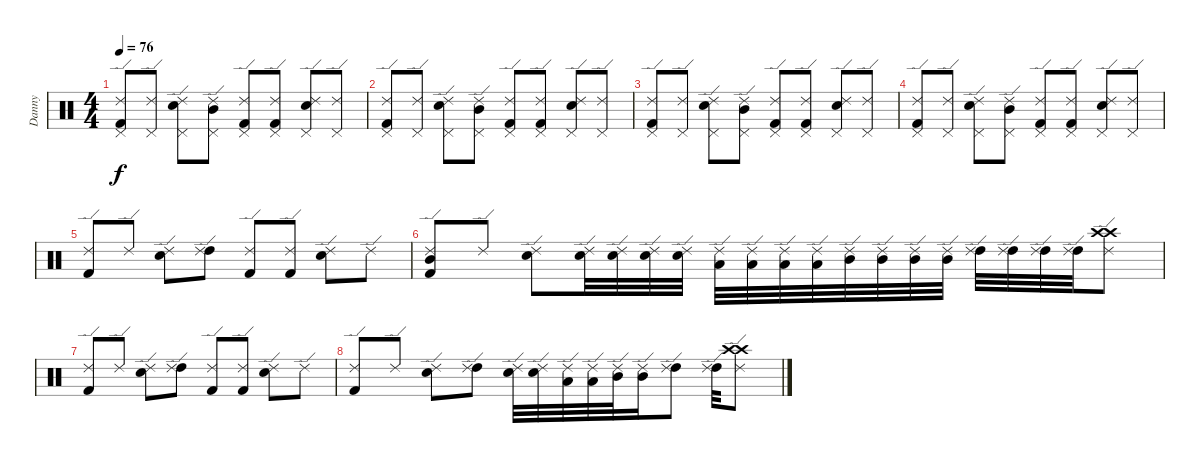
\track ("Danny" "Danny") {instrument percussion}
\staff {score}
\articulation defaults
\ts (4 4)
\tempo 76
\clef neutral
\ks c
("Kick (hit) 2" "Ride (edge) 2" "Pedal Hi-Hat (hit)").8{dy f} ("Ride (edge) 2" "Pedal Hi-Hat (hit)").8 ("Electric Snare (hit)" "Ride (edge) 2" "Pedal Hi-Hat (hit)").8 ("Mid Tom (hit)" "Ride (edge) 2" "Pedal Hi-Hat (hit)").8 ("Kick (hit) 2" "Ride (edge) 2" "Pedal Hi-Hat (hit)").8 ("Kick (hit) 2" "Ride (edge) 2" "Pedal Hi-Hat (hit)").8 ("Electric Snare (hit)" "Ride (edge) 2" "Pedal Hi-Hat (hit)").8 ("Ride (edge) 2" "Pedal Hi-Hat (hit)").8 |
("Kick (hit) 2" "Ride (edge) 2" "Pedal Hi-Hat (hit)").8 ("Ride (edge) 2" "Pedal Hi-Hat (hit)").8 ("Electric Snare (hit)" "Ride (edge) 2" "Pedal Hi-Hat (hit)").8 ("Mid Tom (hit)" "Ride (edge) 2" "Pedal Hi-Hat (hit)").8 ("Kick (hit) 2" "Ride (edge) 2" "Pedal Hi-Hat (hit)").8 ("Kick (hit) 2" "Ride (edge) 2" "Pedal Hi-Hat (hit)").8 ("Electric Snare (hit)" "Ride (edge) 2" "Pedal Hi-Hat (hit)").8 ("Ride (edge) 2" "Pedal Hi-Hat (hit)").8 |
("Kick (hit) 2" "Ride (edge) 2" "Pedal Hi-Hat (hit)").8 ("Ride (edge) 2" "Pedal Hi-Hat (hit)").8 ("Electric Snare (hit)" "Ride (edge) 2" "Pedal Hi-Hat (hit)").8 ("Mid Tom (hit)" "Ride (edge) 2" "Pedal Hi-Hat (hit)").8 ("Kick (hit) 2" "Ride (edge) 2" "Pedal Hi-Hat (hit)").8 ("Kick (hit) 2" "Ride (edge) 2" "Pedal Hi-Hat (hit)").8 ("Electric Snare (hit)" "Ride (edge) 2" "Pedal Hi-Hat (hit)").8 ("Ride (edge) 2" "Pedal Hi-Hat (hit)").8 |
("Kick (hit) 2" "Ride (edge) 2" "Pedal Hi-Hat (hit)").8 ("Ride (edge) 2" "Pedal Hi-Hat (hit)").8 ("Electric Snare (hit)" "Ride (edge) 2" "Pedal Hi-Hat (hit)").8 ("Mid Tom (hit)" "Ride (edge) 2" "Pedal Hi-Hat (hit)").8 ("Kick (hit) 2" "Ride (edge) 2" "Pedal Hi-Hat (hit)").8 ("Kick (hit) 2" "Ride (edge) 2" "Pedal Hi-Hat (hit)").8 ("Electric Snare (hit)" "Ride (edge) 2" "Pedal Hi-Hat (hit)").8 ("Ride (edge) 2" "Pedal Hi-Hat (hit)").8 |
("Kick (hit) 2" "Ride (edge) 2").8 "Ride (edge) 2".8 ("Electric Snare (hit)" "Ride (edge) 2").8 ("High Tom (hit)" "Ride (edge) 2").8 ("Kick (hit) 2" "Ride (edge) 2").8 ("Kick (hit) 2" "Ride (edge) 2").8 ("Electric Snare (hit)" "Ride (edge) 2").8 "Ride (edge) 2".8 |
("Kick (hit) 2" "Ride (edge) 2" "Mid Tom (hit)").8 "Ride (edge) 2".8 ("Electric Snare (hit)" "Ride (edge) 2").8 ("Electric Snare (hit)" "Ride (edge) 2").32 ("Electric Snare (hit)" "Ride (edge) 2").32 ("Electric Snare (hit)" "Ride (edge) 2").32 ("Electric Snare (hit)" "Ride (edge) 2").32 ("Low Tom (hit)" "Ride (edge) 2").32 ("Low Tom (hit)" "Ride (edge) 2").32 ("Low Tom (hit)" "Ride (edge) 2").32 ("Low Tom (hit)" "Ride (edge) 2").32 ("Mid Tom (hit)" "Ride (edge) 2").32 ("Mid Tom (hit)" "Ride (edge) 2").32 ("Mid Tom (hit)" "Ride (edge) 2").32 ("Mid Tom (hit)" "Ride (edge) 2").32 ("High Tom (hit)" "Ride (edge) 2").32 ("High Tom (hit)" "Ride (edge) 2").32 ("High Tom (hit)" "Ride (edge) 2").32 ("High Tom (hit)" "Ride (edge) 2").32 ("Crash high (hit)" "Ride (edge) 2" "Crash high (hit)").8 |
("Kick (hit) 2" "Ride (edge) 2").8 "Ride (edge) 2".8 ("Electric Snare (hit)" "Ride (edge) 2").8 ("High Tom (hit)" "Ride (edge) 2").8 ("Kick (hit) 2" "Ride (edge) 2").8 ("Kick (hit) 2" "Ride (edge) 2").8 ("Electric Snare (hit)" "Ride (edge) 2").8 "Ride (edge) 2".8 |
("Kick (hit) 2" "Ride (edge) 2").8 "Ride (edge) 2".8 ("Electric Snare (hit)" "Ride (edge) 2").8 ("High Tom (hit)" "Ride (edge) 2").8 ("Electric Snare (hit)" "Ride (edge) 2").32 ("Electric Snare (hit)" "Ride (edge) 2").32 ("Low Tom (hit)" "Ride (edge) 2").32 ("Low Tom (hit)" "Ride (edge) 2").32 ("Mid Tom (hit)" "Ride (edge) 2").32 ("Mid Tom (hit)" "Ride (edge) 2").16 ("High Tom (hit)" "Ride (edge) 2").8 ("High Tom (hit)" "Ride (edge) 2").32 ("Crash high (hit)" "Ride (edge) 2" "Crash high (hit)").8
